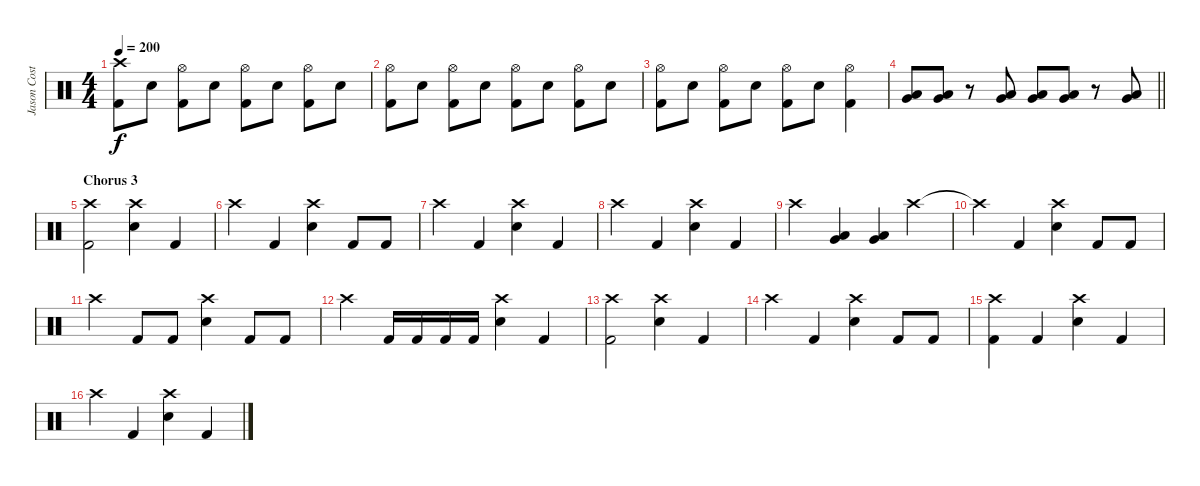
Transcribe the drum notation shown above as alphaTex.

\track ("Jason Costa" "Jason Cost") {instrument percussion}
\staff {score}
\articulation defaults
\ts (4 4)
\tempo 200
\clef neutral
\ks c
("Crash high (hit)" "Kick (hit) 2").8{dy f} "Electric Snare (hit)".8 ("Hi-Hat (open)" "Kick (hit) 2").8 "Electric Snare (hit)".8 ("Hi-Hat (open)" "Kick (hit) 2").8 "Electric Snare (hit)".8 ("Hi-Hat (open)" "Kick (hit) 2").8 "Electric Snare (hit)".8 |
("Hi-Hat (open)" "Kick (hit) 2").8 "Electric Snare (hit)".8 ("Hi-Hat (open)" "Kick (hit) 2").8 "Electric Snare (hit)".8 ("Hi-Hat (open)" "Kick (hit) 2").8 "Electric Snare (hit)".8 ("Hi-Hat (open)" "Kick (hit) 2").8 "Electric Snare (hit)".8 |
("Hi-Hat (open)" "Kick (hit) 2").8 "Electric Snare (hit)".8 ("Hi-Hat (open)" "Kick (hit) 2").8 "Electric Snare (hit)".8 ("Hi-Hat (open)" "Kick (hit) 2").8 "Electric Snare (hit)".8 ("Hi-Hat (open)" "Kick (hit) 2").4 |
\barLineRight lightlight
("Low Tom (hit)" "Very Low Tom (hit)").8 ("Low Tom (hit)" "Very Low Tom (hit)").8 r.8 ("Low Tom (hit)" "Very Low Tom (hit)").8 ("Low Tom (hit)" "Very Low Tom (hit)").8 ("Low Tom (hit)" "Very Low Tom (hit)").8 r.8 ("Low Tom (hit)" "Very Low Tom (hit)").8 |
\section ("" "Chorus 3")
("Crash high (hit)" "Kick (hit) 2").2 ("Crash high (hit)" "Electric Snare (hit)").4 "Kick (hit) 2".4 |
"Crash high (hit)".4 "Kick (hit) 2".4 ("Crash high (hit)" "Electric Snare (hit)").4 "Kick (hit) 2".8 "Kick (hit) 2".8 |
"Crash high (hit)".4 "Kick (hit) 2".4 ("Crash high (hit)" "Electric Snare (hit)").4 "Kick (hit) 2".4 |
"Crash high (hit)".4 "Kick (hit) 2".4 ("Crash high (hit)" "Electric Snare (hit)").4 "Kick (hit) 2".4 |
"Crash high (hit)".4 ("Very Low Tom (hit)" "Low Floor Tom (hit)").4 ("Very Low Tom (hit)" "Low Floor Tom (hit)").4 "Crash high (hit)".4 |
"Crash high (hit)"{t}.4 "Kick (hit) 2".4 ("Crash high (hit)" "Electric Snare (hit)").4 "Kick (hit) 2".8 "Kick (hit) 2".8 |
"Crash high (hit)".4 "Kick (hit) 2".8 "Kick (hit) 2".8 ("Crash high (hit)" "Electric Snare (hit)").4 "Kick (hit) 2".8 "Kick (hit) 2".8 |
"Crash high (hit)".4 "Kick (hit) 2".16 "Kick (hit) 2".16 "Kick (hit) 2".16 "Kick (hit) 2".16 ("Crash high (hit)" "Electric Snare (hit)").4 "Kick (hit) 2".4 |
("Crash high (hit)" "Kick (hit) 2").2 ("Crash high (hit)" "Electric Snare (hit)").4 "Kick (hit) 2".4 |
"Crash high (hit)".4 "Kick (hit) 2".4 ("Crash high (hit)" "Electric Snare (hit)").4 "Kick (hit) 2".8 "Kick (hit) 2".8 |
("Crash high (hit)" "Kick (hit) 2").4 "Kick (hit) 2".4 ("Crash high (hit)" "Electric Snare (hit)").4 "Kick (hit) 2".4 |
"Crash high (hit)".4 "Kick (hit) 2".4 ("Crash high (hit)" "Electric Snare (hit)").4 "Kick (hit) 2".4
